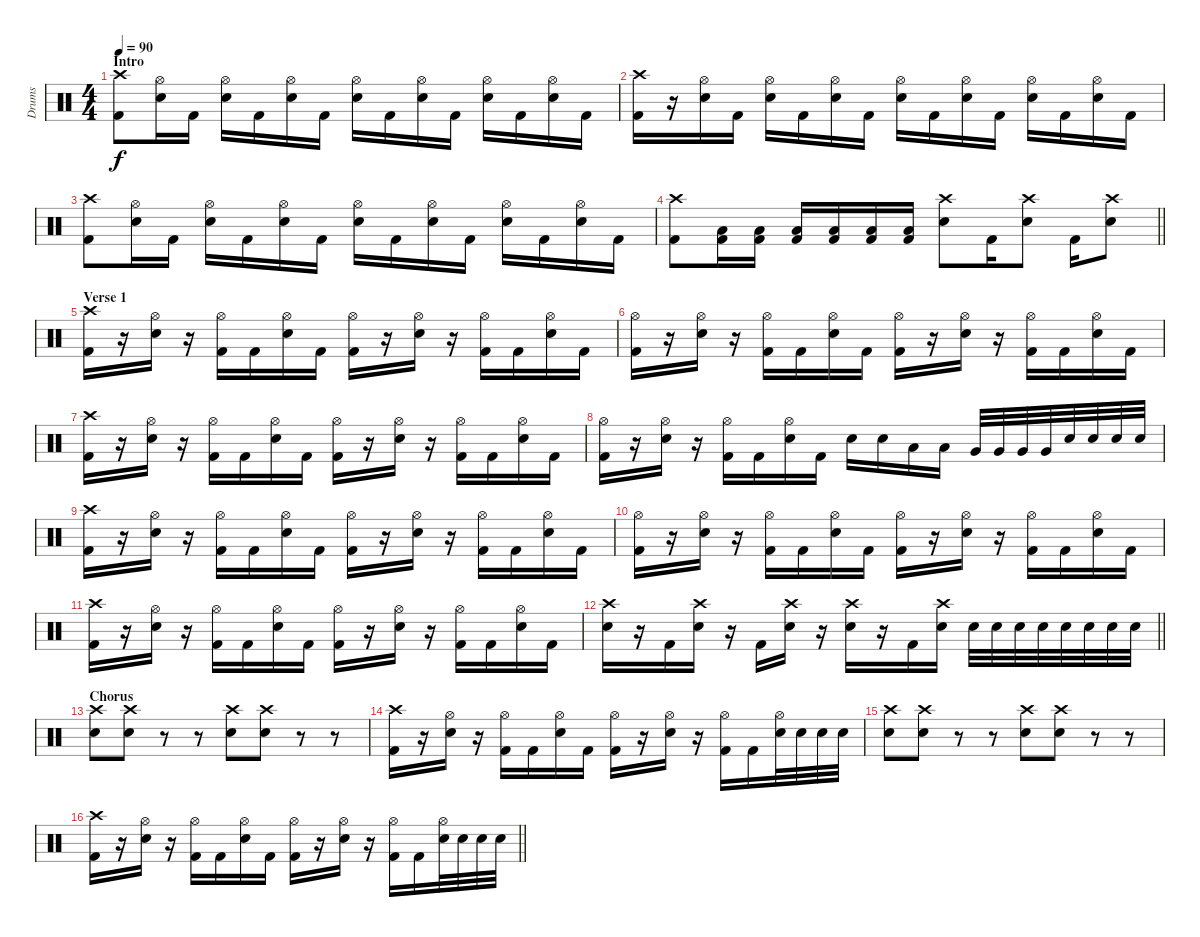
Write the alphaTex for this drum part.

\track ("Drums" "Drums") {instrument percussion}
\staff {score}
\articulation defaults
\ts (4 4)
\section ("" "Intro")
\tempo 90
\clef neutral
\ks c
("Crash high (hit)" "Kick (hit) 2").8{dy f} ("Hi-Hat (open)" "Snare (hit) 2").16 "Kick (hit) 2".16 ("Hi-Hat (open)" "Snare (hit) 2").16 "Kick (hit) 2".16 ("Hi-Hat (open)" "Snare (hit) 2").16 "Kick (hit) 2".16 ("Hi-Hat (open)" "Snare (hit) 2").16 "Kick (hit) 2".16 ("Hi-Hat (open)" "Snare (hit) 2").16 "Kick (hit) 2".16 ("Hi-Hat (open)" "Snare (hit) 2").16 "Kick (hit) 2".16 ("Hi-Hat (open)" "Snare (hit) 2").16 "Kick (hit) 2".16 |
("Crash high (hit)" "Kick (hit) 2").16 r.16 ("Hi-Hat (open)" "Snare (hit) 2").16 "Kick (hit) 2".16 ("Hi-Hat (open)" "Snare (hit) 2").16 "Kick (hit) 2".16 ("Hi-Hat (open)" "Snare (hit) 2").16 "Kick (hit) 2".16 ("Hi-Hat (open)" "Snare (hit) 2").16 "Kick (hit) 2".16 ("Hi-Hat (open)" "Snare (hit) 2").16 "Kick (hit) 2".16 ("Hi-Hat (open)" "Snare (hit) 2").16 "Kick (hit) 2".16 ("Hi-Hat (open)" "Snare (hit) 2").16 "Kick (hit) 2".16 |
("Crash high (hit)" "Kick (hit) 2").8 ("Hi-Hat (open)" "Snare (hit) 2").16 "Kick (hit) 2".16 ("Hi-Hat (open)" "Snare (hit) 2").16 "Kick (hit) 2".16 ("Hi-Hat (open)" "Snare (hit) 2").16 "Kick (hit) 2".16 ("Hi-Hat (open)" "Snare (hit) 2").16 "Kick (hit) 2".16 ("Hi-Hat (open)" "Snare (hit) 2").16 "Kick (hit) 2".16 ("Hi-Hat (open)" "Snare (hit) 2").16 "Kick (hit) 2".16 ("Hi-Hat (open)" "Snare (hit) 2").16 "Kick (hit) 2".16 |
\barLineRight lightlight
("Crash high (hit)" "Kick (hit) 2").8 ("Low Floor Tom (hit)" "Kick (hit) 2").16 ("Low Floor Tom (hit)" "Kick (hit) 2").16 ("Low Floor Tom (hit)" "Kick (hit) 2").16 ("Low Floor Tom (hit)" "Kick (hit) 2").16 ("Low Floor Tom (hit)" "Kick (hit) 2").16 ("Low Floor Tom (hit)" "Kick (hit) 2").16 ("Crash high (hit)" "Snare (hit) 2").8 "Kick (hit) 2".16 ("Crash high (hit)" "Snare (hit) 2").8 "Kick (hit) 2".16 ("Crash high (hit)" "Snare (hit) 2").8 |
\section ("" "Verse 1")
("Crash high (hit)" "Kick (hit) 2").16 r.16 ("Hi-Hat (open)" "Snare (hit) 2").16 r.16 ("Hi-Hat (open)" "Kick (hit) 2").16 "Kick (hit) 2".16 ("Hi-Hat (open)" "Snare (hit) 2").16 "Kick (hit) 2".16 ("Hi-Hat (open)" "Kick (hit) 2").16 r.16 ("Hi-Hat (open)" "Snare (hit) 2").16 r.16 ("Hi-Hat (open)" "Kick (hit) 2").16 "Kick (hit) 2".16 ("Hi-Hat (open)" "Snare (hit) 2").16 "Kick (hit) 2".16 |
("Hi-Hat (open)" "Kick (hit) 2").16 r.16 ("Hi-Hat (open)" "Snare (hit) 2").16 r.16 ("Hi-Hat (open)" "Kick (hit) 2").16 "Kick (hit) 2".16 ("Hi-Hat (open)" "Snare (hit) 2").16 "Kick (hit) 2".16 ("Hi-Hat (open)" "Kick (hit) 2").16 r.16 ("Hi-Hat (open)" "Snare (hit) 2").16 r.16 ("Hi-Hat (open)" "Kick (hit) 2").16 "Kick (hit) 2".16 ("Hi-Hat (open)" "Snare (hit) 2").16 "Kick (hit) 2".16 |
("Crash high (hit)" "Kick (hit) 2").16 r.16 ("Hi-Hat (open)" "Snare (hit) 2").16 r.16 ("Hi-Hat (open)" "Kick (hit) 2").16 "Kick (hit) 2".16 ("Hi-Hat (open)" "Snare (hit) 2").16 "Kick (hit) 2".16 ("Hi-Hat (open)" "Kick (hit) 2").16 r.16 ("Hi-Hat (open)" "Snare (hit) 2").16 r.16 ("Hi-Hat (open)" "Kick (hit) 2").16 "Kick (hit) 2".16 ("Hi-Hat (open)" "Snare (hit) 2").16 "Kick (hit) 2".16 |
("Hi-Hat (open)" "Kick (hit) 2").16 r.16 ("Hi-Hat (open)" "Snare (hit) 2").16 r.16 ("Hi-Hat (open)" "Kick (hit) 2").16 "Kick (hit) 2".16 ("Hi-Hat (open)" "Snare (hit) 2").16 "Kick (hit) 2".16 "Snare (hit) 2".16 "Snare (hit) 2".16 "Low Tom (hit)".16 "Low Tom (hit)".16 "Very Low Tom (hit)".32 "Very Low Tom (hit)".32 "Very Low Tom (hit)".32 "Very Low Tom (hit)".32 "Snare (hit) 2".32 "Snare (hit) 2".32 "Snare (hit) 2".32 "Snare (hit) 2".32 |
("Crash high (hit)" "Kick (hit) 2").16 r.16 ("Hi-Hat (open)" "Snare (hit) 2").16 r.16 ("Hi-Hat (open)" "Kick (hit) 2").16 "Kick (hit) 2".16 ("Hi-Hat (open)" "Snare (hit) 2").16 "Kick (hit) 2".16 ("Hi-Hat (open)" "Kick (hit) 2").16 r.16 ("Hi-Hat (open)" "Snare (hit) 2").16 r.16 ("Hi-Hat (open)" "Kick (hit) 2").16 "Kick (hit) 2".16 ("Hi-Hat (open)" "Snare (hit) 2").16 "Kick (hit) 2".16 |
("Hi-Hat (open)" "Kick (hit) 2").16 r.16 ("Hi-Hat (open)" "Snare (hit) 2").16 r.16 ("Hi-Hat (open)" "Kick (hit) 2").16 "Kick (hit) 2".16 ("Hi-Hat (open)" "Snare (hit) 2").16 "Kick (hit) 2".16 ("Hi-Hat (open)" "Kick (hit) 2").16 r.16 ("Hi-Hat (open)" "Snare (hit) 2").16 r.16 ("Hi-Hat (open)" "Kick (hit) 2").16 "Kick (hit) 2".16 ("Hi-Hat (open)" "Snare (hit) 2").16 "Kick (hit) 2".16 |
("Crash high (hit)" "Kick (hit) 2").16 r.16 ("Hi-Hat (open)" "Snare (hit) 2").16 r.16 ("Hi-Hat (open)" "Kick (hit) 2").16 "Kick (hit) 2".16 ("Hi-Hat (open)" "Snare (hit) 2").16 "Kick (hit) 2".16 ("Hi-Hat (open)" "Kick (hit) 2").16 r.16 ("Hi-Hat (open)" "Snare (hit) 2").16 r.16 ("Hi-Hat (open)" "Kick (hit) 2").16 "Kick (hit) 2".16 ("Hi-Hat (open)" "Snare (hit) 2").16 "Kick (hit) 2".16 |
\barLineRight lightlight
("Crash high (hit)" "Snare (hit) 2").16 r.16 "Kick (hit) 2".16 ("Crash high (hit)" "Snare (hit) 2").16 r.16 "Kick (hit) 2".16 ("Crash high (hit)" "Snare (hit) 2").16 r.16 ("Crash high (hit)" "Snare (hit) 2").16 r.16 "Kick (hit) 2".16 ("Crash high (hit)" "Snare (hit) 2").16 "Snare (hit) 2".32 "Snare (hit) 2".32 "Snare (hit) 2".32 "Snare (hit) 2".32 "Snare (hit) 2".32 "Snare (hit) 2".32 "Snare (hit) 2".32 "Snare (hit) 2".32 |
\section ("" "Chorus")
("Crash high (hit)" "Snare (hit) 2").8 ("Crash high (hit)" "Snare (hit) 2").8 r.8 r.8 ("Crash high (hit)" "Snare (hit) 2").8 ("Crash high (hit)" "Snare (hit) 2").8 r.8 r.8 |
("Crash high (hit)" "Kick (hit) 2").16 r.16 ("Hi-Hat (open)" "Snare (hit) 2").16 r.16 ("Hi-Hat (open)" "Kick (hit) 2").16 "Kick (hit) 2".16 ("Hi-Hat (open)" "Snare (hit) 2").16 "Kick (hit) 2".16 ("Hi-Hat (open)" "Kick (hit) 2").16 r.16 ("Hi-Hat (open)" "Snare (hit) 2").16 r.16 ("Hi-Hat (open)" "Kick (hit) 2").16 "Kick (hit) 2".16 ("Hi-Hat (open)" "Snare (hit) 2").32 "Snare (hit) 2".32 "Snare (hit) 2".32 "Snare (hit) 2".32 |
("Crash high (hit)" "Snare (hit) 2").8 ("Crash high (hit)" "Snare (hit) 2").8 r.8 r.8 ("Crash high (hit)" "Snare (hit) 2").8 ("Crash high (hit)" "Snare (hit) 2").8 r.8 r.8 |
\barLineRight lightlight
("Crash high (hit)" "Kick (hit) 2").16 r.16 ("Hi-Hat (open)" "Snare (hit) 2").16 r.16 ("Hi-Hat (open)" "Kick (hit) 2").16 "Kick (hit) 2".16 ("Hi-Hat (open)" "Snare (hit) 2").16 "Kick (hit) 2".16 ("Hi-Hat (open)" "Kick (hit) 2").16 r.16 ("Hi-Hat (open)" "Snare (hit) 2").16 r.16 ("Hi-Hat (open)" "Kick (hit) 2").16 "Kick (hit) 2".16 ("Hi-Hat (open)" "Snare (hit) 2").32 "Snare (hit) 2".32 "Snare (hit) 2".32 "Snare (hit) 2".32
